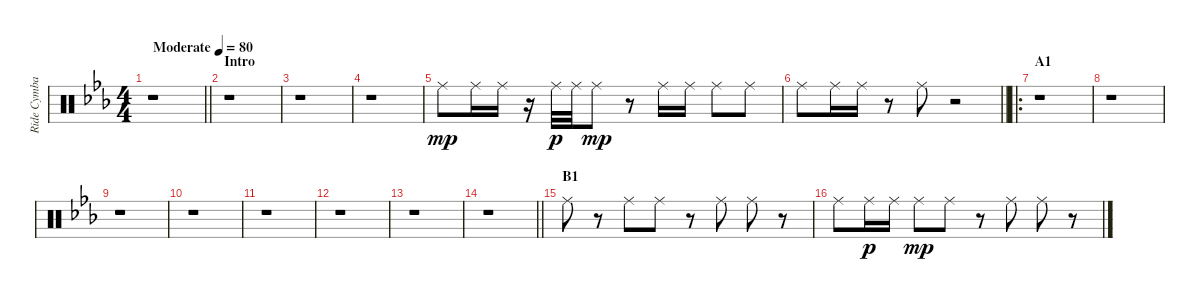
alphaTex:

\track ("Ride Cymbal" "Ride Cymba") {instrument percussion}
\staff {score}
\articulation defaults
\ts (4 4)
\tempo (80 "Moderate")
\clef neutral
\barLineRight lightlight
\ks eb
r.1{dy mp} |
\section ("" "Intro")
r.1 |
r.1 |
r.1 |
"Ride (middle)".8 "Ride (middle)".16 "Ride (middle)".16 r.16 "Ride (middle)".32{dy p} "Ride (middle)".32 "Ride (middle)".8{dy mp} r.8 "Ride (middle)".16 "Ride (middle)".16 "Ride (middle)".8 "Ride (middle)".8 |
\barLineRight lightlight "Ride (middle)".8 "Ride (middle)".16 "Ride (middle)".16
r.8 "Ride (middle)".8 r.2 |
\ro
\section ("" "A1")
r.1 |
r.1 |
r.1 |
r.1 |
r.1 |
r.1 |
r.1 |
\barLineRight lightlight
r.1 |
\section ("" "B1")
"Ride (middle)".8 r.8 "Ride (middle)".8 "Ride (middle)".8 r.8 "Ride (middle)".8 "Ride (middle)".8 r.8 |
"Ride (middle)".8 "Ride (middle)".16{dy p} "Ride (middle)".16 "Ride (middle)".8{dy mp} "Ride (middle)".8 r.8 "Ride (middle)".8 "Ride (middle)".8 r.8
